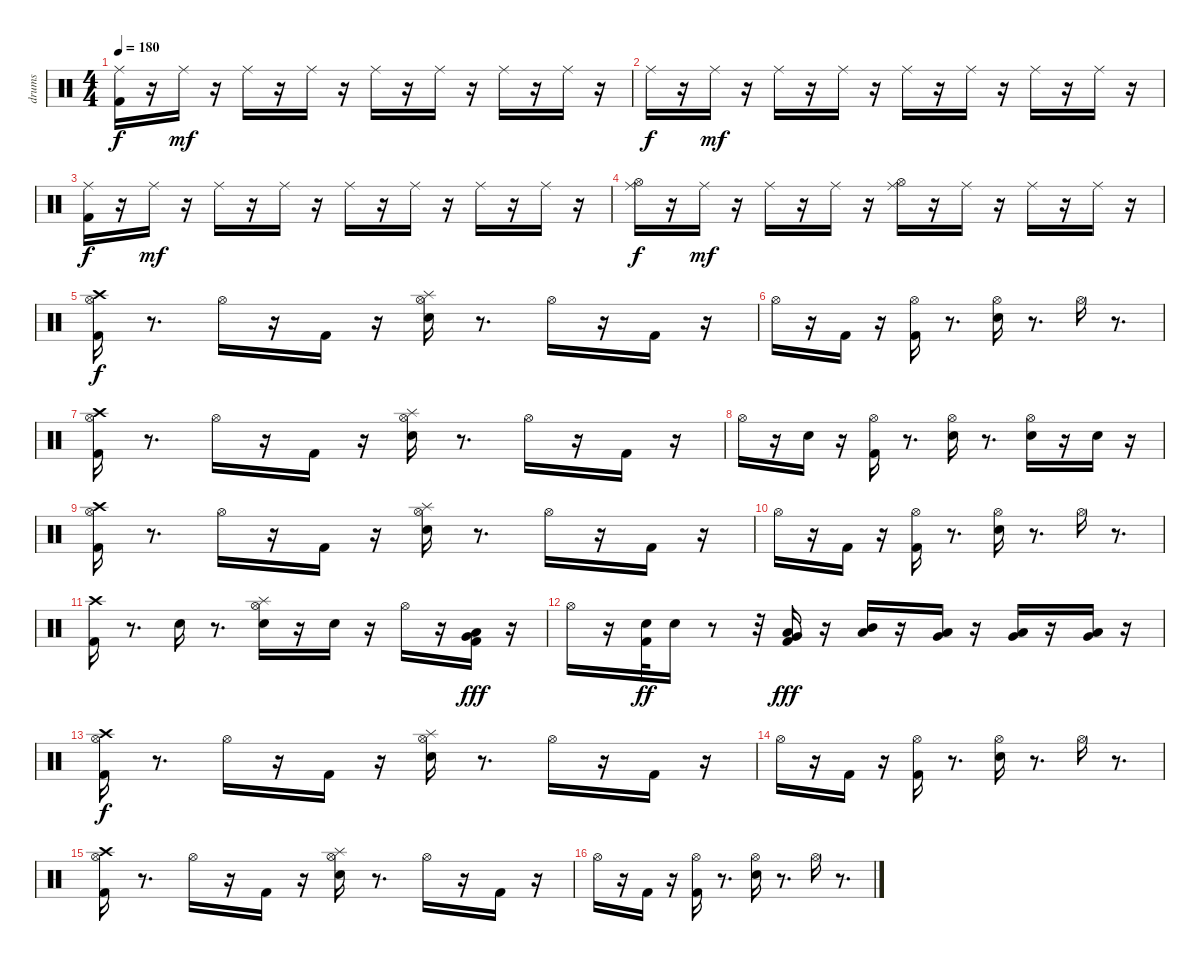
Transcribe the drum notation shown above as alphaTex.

\track ("drums" "drums") {instrument percussion}
\staff {score}
\articulation defaults
\ts (4 4)
\tempo 180
\clef neutral
\ks c
("Kick (hit) 2" "Ride (middle)").16{dy f} r.16 "Ride (middle)".16{dy mf} r.16 "Ride (middle)".16 r.16 "Ride (middle)".16 r.16 "Ride (middle)".16 r.16 "Ride (middle)".16 r.16 "Ride (middle)".16 r.16 "Ride (middle)".16 r.16 |
"Ride (middle)".16{dy f} r.16 "Ride (middle)".16{dy mf} r.16 "Ride (middle)".16 r.16 "Ride (middle)".16 r.16 "Ride (middle)".16 r.16 "Ride (middle)".16 r.16 "Ride (middle)".16 r.16 "Ride (middle)".16 r.16 |
("Kick (hit) 2" "Ride (middle)").16{dy f} r.16 "Ride (middle)".16{dy mf} r.16 "Ride (middle)".16 r.16 "Ride (middle)".16 r.16 "Ride (middle)".16 r.16 "Ride (middle)".16 r.16 "Ride (middle)".16 r.16 "Ride (middle)".16 r.16 |
("Hi-Hat (open)" "Ride (middle)").16{dy f} r.16 "Ride (middle)".16{dy mf} r.16 "Ride (middle)".16 r.16 "Ride (middle)".16 r.16 ("Hi-Hat (open)" "Ride (middle)").16 r.16 "Ride (middle)".16 r.16 "Ride (middle)".16 r.16 "Ride (middle)".16 r.16 |
("Crash high (hit)" "Kick (hit) 2" "Hi-Hat (open)").16{dy f} r.8{d} "Hi-Hat (open)".16 r.16 "Kick (hit) 2".16 r.16 ("Electric Snare (hit)" "Hi-Hat (open)" "Splash (hit)").16 r.8{d} "Hi-Hat (open)".16 r.16 "Kick (hit) 2".16 r.16 |
"Hi-Hat (open)".16 r.16 "Kick (hit) 2".16 r.16 ("Hi-Hat (open)" "Kick (hit) 2").16 r.8{d} ("Hi-Hat (open)" "Electric Snare (hit)").16 r.8{d} "Hi-Hat (open)".16 r.8{d} |
("Crash high (hit)" "Kick (hit) 2" "Hi-Hat (open)").16 r.8{d} "Hi-Hat (open)".16 r.16 "Kick (hit) 2".16 r.16 ("Splash (hit)" "Electric Snare (hit)" "Hi-Hat (open)").16 r.8{d} "Hi-Hat (open)".16 r.16 "Kick (hit) 2".16 r.16 |
"Hi-Hat (open)".16 r.16 "Electric Snare (hit)".16 r.16 ("Hi-Hat (open)" "Kick (hit) 2").16 r.8{d} ("Hi-Hat (open)" "Electric Snare (hit)").16 r.8{d} ("Hi-Hat (open)" "Electric Snare (hit)").16 r.16 "Electric Snare (hit)".16 r.16 |
("Crash high (hit)" "Kick (hit) 2" "Hi-Hat (open)").16 r.8{d} "Hi-Hat (open)".16 r.16 "Kick (hit) 2".16 r.16 ("Splash (hit)" "Electric Snare (hit)" "Hi-Hat (open)").16 r.8{d} "Hi-Hat (open)".16 r.16 "Kick (hit) 2".16 r.16 |
"Hi-Hat (open)".16 r.16 "Kick (hit) 2".16 r.16 ("Hi-Hat (open)" "Kick (hit) 2").16 r.8{d} ("Hi-Hat (open)" "Electric Snare (hit)").16 r.8{d} "Hi-Hat (open)".16 r.8{d} |
("Crash high (hit)" "Kick (hit) 2").16 r.8{d} "Electric Snare (hit)".16 r.8{d} ("Splash (hit)" "Hi-Hat (open)" "Electric Snare (hit)").16 r.16 "Electric Snare (hit)".16 r.16 "Hi-Hat (open)".16 r.16 ("Very Low Tom (hit)" "Low Floor Tom (hit)" "Kick (hit) 2").16{dy fff} r.16 |
"Hi-Hat (open)".16 r.16 ("Electric Snare (hit)" "Kick (hit) 2").32{dy ff} "Electric Snare (hit)".16 r.8 r.32 ("Low Tom (hit)" "Very Low Tom (hit)" "Kick (hit) 2").16{dy fff} r.16 ("Low Tom (hit)" "Mid Tom (hit)").16 r.16 ("Very Low Tom (hit)" "Low Tom (hit)").16 r.16 ("Low Tom (hit)" "Very Low Tom (hit)").16 r.16 ("Very Low Tom (hit)" "Low Floor Tom (hit)").16 r.16 |
("Crash high (hit)" "Kick (hit) 2" "Hi-Hat (open)").16{dy f} r.8{d} "Hi-Hat (open)".16 r.16 "Kick (hit) 2".16 r.16 ("Splash (hit)" "Electric Snare (hit)" "Hi-Hat (open)").16 r.8{d} "Hi-Hat (open)".16 r.16 "Kick (hit) 2".16 r.16 |
"Hi-Hat (open)".16 r.16 "Kick (hit) 2".16 r.16 ("Hi-Hat (open)" "Kick (hit) 2").16 r.8{d} ("Hi-Hat (open)" "Electric Snare (hit)").16 r.8{d} "Hi-Hat (open)".16 r.8{d} |
("Crash high (hit)" "Kick (hit) 2" "Hi-Hat (open)").16 r.8{d} "Hi-Hat (open)".16 r.16 "Kick (hit) 2".16 r.16 ("Splash (hit)" "Electric Snare (hit)" "Hi-Hat (open)").16 r.8{d} "Hi-Hat (open)".16 r.16 "Kick (hit) 2".16 r.16 |
"Hi-Hat (open)".16 r.16 "Kick (hit) 2".16 r.16 ("Hi-Hat (open)" "Kick (hit) 2").16 r.8{d} ("Hi-Hat (open)" "Electric Snare (hit)").16 r.8{d} "Hi-Hat (open)".16 r.8{d}
